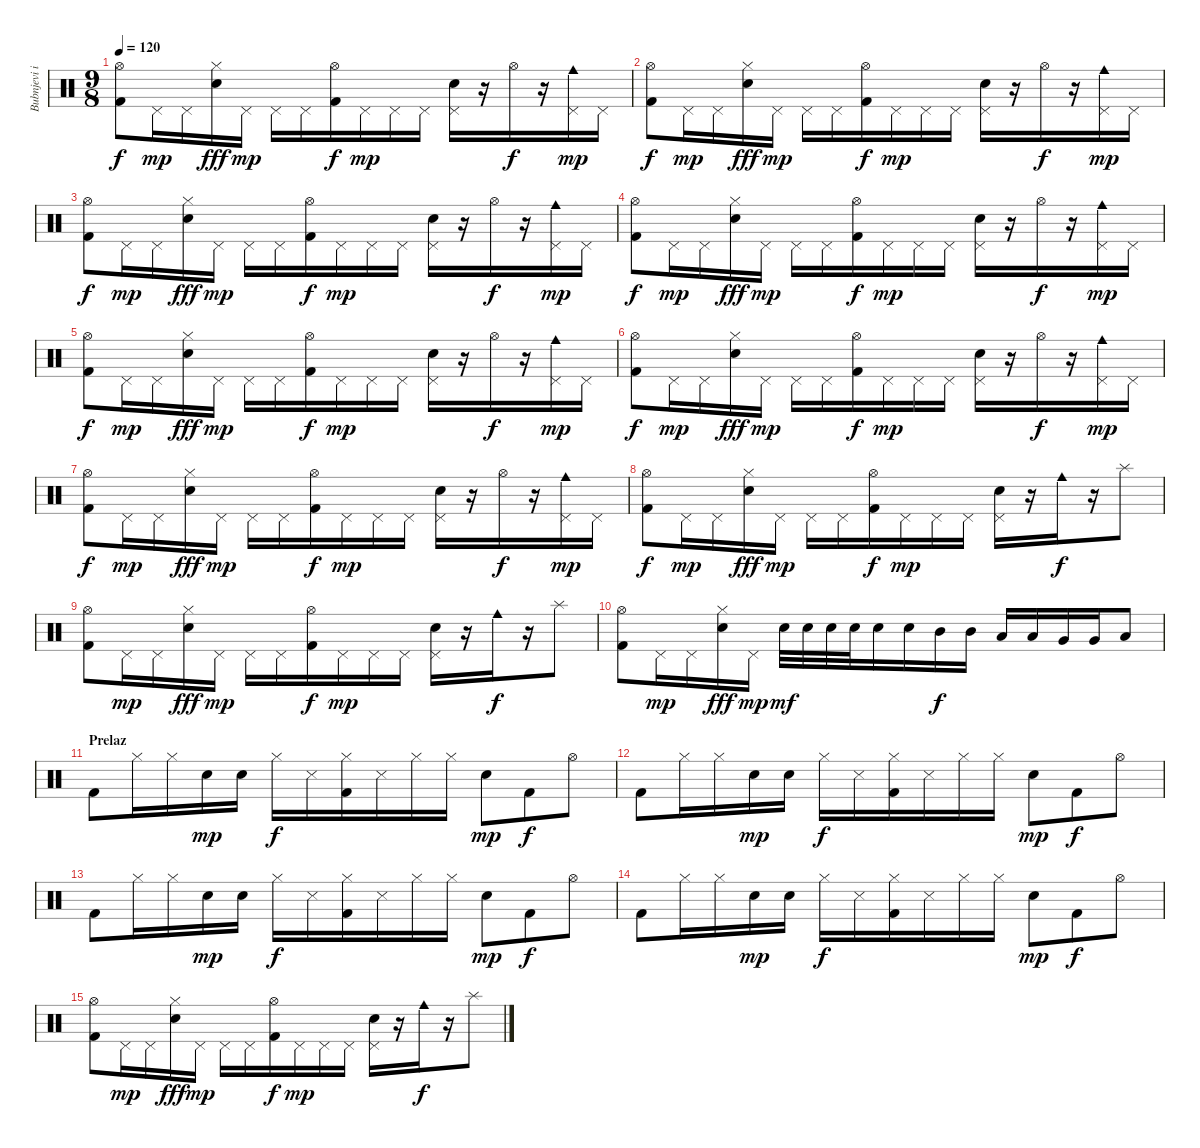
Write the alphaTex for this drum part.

\track ("Bubnjevi i perkusije" "Bubnjevi i") {instrument percussion}
\staff {score}
\articulation defaults
\ts (9 8)
\tempo 120
\clef neutral
\ks c
("Hi-Hat (open)" "Kick (hit) 2").8{dy f} "Pedal Hi-Hat (hit)".16{dy mp} "Pedal Hi-Hat (hit)".16 ("Hi-Hat (closed)" "Electric Snare (hit)").16{dy fff} "Pedal Hi-Hat (hit)".16{dy mp} "Pedal Hi-Hat (hit)".16 "Pedal Hi-Hat (hit)".16 ("Hi-Hat (open)" "Kick (hit) 2").16{dy f} "Pedal Hi-Hat (hit)".16{dy mp} "Pedal Hi-Hat (hit)".16 "Pedal Hi-Hat (hit)".16 ("Pedal Hi-Hat (hit)" "Electric Snare (hit)").16 r.16 "Hi-Hat (open)".16{dy f} r.16 ("Pedal Hi-Hat (hit)" "Cowbell medium (hit)").16{dy mp} "Pedal Hi-Hat (hit)".16 |
("Hi-Hat (open)" "Kick (hit) 2").8{dy f} "Pedal Hi-Hat (hit)".16{dy mp} "Pedal Hi-Hat (hit)".16 ("Hi-Hat (closed)" "Electric Snare (hit)").16{dy fff} "Pedal Hi-Hat (hit)".16{dy mp} "Pedal Hi-Hat (hit)".16 "Pedal Hi-Hat (hit)".16 ("Hi-Hat (open)" "Kick (hit) 2").16{dy f} "Pedal Hi-Hat (hit)".16{dy mp} "Pedal Hi-Hat (hit)".16 "Pedal Hi-Hat (hit)".16 ("Pedal Hi-Hat (hit)" "Electric Snare (hit)").16 r.16 "Hi-Hat (open)".16{dy f} r.16 ("Pedal Hi-Hat (hit)" "Cowbell medium (hit)").16{dy mp} "Pedal Hi-Hat (hit)".16 |
("Hi-Hat (open)" "Kick (hit) 2").8{dy f} "Pedal Hi-Hat (hit)".16{dy mp} "Pedal Hi-Hat (hit)".16 ("Hi-Hat (closed)" "Electric Snare (hit)").16{dy fff} "Pedal Hi-Hat (hit)".16{dy mp} "Pedal Hi-Hat (hit)".16 "Pedal Hi-Hat (hit)".16 ("Hi-Hat (open)" "Kick (hit) 2").16{dy f} "Pedal Hi-Hat (hit)".16{dy mp} "Pedal Hi-Hat (hit)".16 "Pedal Hi-Hat (hit)".16 ("Pedal Hi-Hat (hit)" "Electric Snare (hit)").16 r.16 "Hi-Hat (open)".16{dy f} r.16 ("Pedal Hi-Hat (hit)" "Cowbell medium (hit)").16{dy mp} "Pedal Hi-Hat (hit)".16 |
("Hi-Hat (open)" "Kick (hit) 2").8{dy f} "Pedal Hi-Hat (hit)".16{dy mp} "Pedal Hi-Hat (hit)".16 ("Hi-Hat (closed)" "Electric Snare (hit)").16{dy fff} "Pedal Hi-Hat (hit)".16{dy mp} "Pedal Hi-Hat (hit)".16 "Pedal Hi-Hat (hit)".16 ("Hi-Hat (open)" "Kick (hit) 2").16{dy f} "Pedal Hi-Hat (hit)".16{dy mp} "Pedal Hi-Hat (hit)".16 "Pedal Hi-Hat (hit)".16 ("Pedal Hi-Hat (hit)" "Electric Snare (hit)").16 r.16 "Hi-Hat (open)".16{dy f} r.16 ("Pedal Hi-Hat (hit)" "Cowbell medium (hit)").16{dy mp} "Pedal Hi-Hat (hit)".16 |
("Hi-Hat (open)" "Kick (hit) 2").8{dy f} "Pedal Hi-Hat (hit)".16{dy mp} "Pedal Hi-Hat (hit)".16 ("Hi-Hat (closed)" "Electric Snare (hit)").16{dy fff} "Pedal Hi-Hat (hit)".16{dy mp} "Pedal Hi-Hat (hit)".16 "Pedal Hi-Hat (hit)".16 ("Hi-Hat (open)" "Kick (hit) 2").16{dy f} "Pedal Hi-Hat (hit)".16{dy mp} "Pedal Hi-Hat (hit)".16 "Pedal Hi-Hat (hit)".16 ("Pedal Hi-Hat (hit)" "Electric Snare (hit)").16 r.16 "Hi-Hat (open)".16{dy f} r.16 ("Pedal Hi-Hat (hit)" "Cowbell medium (hit)").16{dy mp} "Pedal Hi-Hat (hit)".16 |
("Hi-Hat (open)" "Kick (hit) 2").8{dy f} "Pedal Hi-Hat (hit)".16{dy mp} "Pedal Hi-Hat (hit)".16 ("Hi-Hat (closed)" "Electric Snare (hit)").16{dy fff} "Pedal Hi-Hat (hit)".16{dy mp} "Pedal Hi-Hat (hit)".16 "Pedal Hi-Hat (hit)".16 ("Hi-Hat (open)" "Kick (hit) 2").16{dy f} "Pedal Hi-Hat (hit)".16{dy mp} "Pedal Hi-Hat (hit)".16 "Pedal Hi-Hat (hit)".16 ("Pedal Hi-Hat (hit)" "Electric Snare (hit)").16 r.16 "Hi-Hat (open)".16{dy f} r.16 ("Pedal Hi-Hat (hit)" "Cowbell medium (hit)").16{dy mp} "Pedal Hi-Hat (hit)".16 |
("Hi-Hat (open)" "Kick (hit) 2").8{dy f} "Pedal Hi-Hat (hit)".16{dy mp} "Pedal Hi-Hat (hit)".16 ("Hi-Hat (closed)" "Electric Snare (hit)").16{dy fff} "Pedal Hi-Hat (hit)".16{dy mp} "Pedal Hi-Hat (hit)".16 "Pedal Hi-Hat (hit)".16 ("Hi-Hat (open)" "Kick (hit) 2").16{dy f} "Pedal Hi-Hat (hit)".16{dy mp} "Pedal Hi-Hat (hit)".16 "Pedal Hi-Hat (hit)".16 ("Pedal Hi-Hat (hit)" "Electric Snare (hit)").16 r.16 "Hi-Hat (open)".16{dy f} r.16 ("Pedal Hi-Hat (hit)" "Cowbell medium (hit)").16{dy mp} "Pedal Hi-Hat (hit)".16 |
("Hi-Hat (open)" "Kick (hit) 2").8{dy f} "Pedal Hi-Hat (hit)".16{dy mp} "Pedal Hi-Hat (hit)".16 ("Hi-Hat (closed)" "Electric Snare (hit)").16{dy fff} "Pedal Hi-Hat (hit)".16{dy mp} "Pedal Hi-Hat (hit)".16 "Pedal Hi-Hat (hit)".16 ("Hi-Hat (open)" "Kick (hit) 2").16{dy f} "Pedal Hi-Hat (hit)".16{dy mp} "Pedal Hi-Hat (hit)".16 "Pedal Hi-Hat (hit)".16 ("Pedal Hi-Hat (hit)" "Electric Snare (hit)").16 r.16 "Cowbell medium (hit)".16{dy f} r.16 "Splash (hit)".8 |
("Hi-Hat (open)" "Kick (hit) 2").8 "Pedal Hi-Hat (hit)".16{dy mp} "Pedal Hi-Hat (hit)".16 ("Hi-Hat (closed)" "Electric Snare (hit)").16{dy fff} "Pedal Hi-Hat (hit)".16{dy mp} "Pedal Hi-Hat (hit)".16 "Pedal Hi-Hat (hit)".16 ("Hi-Hat (open)" "Kick (hit) 2").16{dy f} "Pedal Hi-Hat (hit)".16{dy mp} "Pedal Hi-Hat (hit)".16 "Pedal Hi-Hat (hit)".16 ("Pedal Hi-Hat (hit)" "Electric Snare (hit)").16 r.16 "Cowbell medium (hit)".16{dy f} r.16 "Splash (hit)".8 |
("Hi-Hat (open)" "Kick (hit) 2").8 "Pedal Hi-Hat (hit)".16{dy mp} "Pedal Hi-Hat (hit)".16 ("Hi-Hat (closed)" "Electric Snare (hit)").16{dy fff} "Pedal Hi-Hat (hit)".16{dy mp} "Electric Snare (hit)".32{dy mf} "Electric Snare (hit)".32 "Electric Snare (hit)".32 "Electric Snare (hit)".32 "Electric Snare (hit)".16 "Electric Snare (hit)".16 "Mid Tom (hit)".16{dy f} "Mid Tom (hit)".16 "Low Tom (hit)".16 "Low Tom (hit)".16 "Very Low Tom (hit)".16 "Very Low Tom (hit)".16 "Low Floor Tom (hit)".8 |
\section ("" "Prelaz")
"Kick (hit) 2".8 "Hi-Hat (closed)".16 "Hi-Hat (closed)".16 "Electric Snare (hit)".16{dy mp} "Electric Snare (hit)".16 "Hi-Hat (closed)".16{dy f} "Snare (side stick) 3".16 ("Hi-Hat (closed)" "Kick (hit) 2").16 "Snare (side stick) 3".16 "Hi-Hat (closed)".16 "Hi-Hat (closed)".16 "Electric Snare (hit)".8{dy mp} "Kick (hit) 2".8{dy f} "Hi-Hat (open)".8 |
"Kick (hit) 2".8 "Hi-Hat (closed)".16 "Hi-Hat (closed)".16 "Electric Snare (hit)".16{dy mp} "Electric Snare (hit)".16 "Hi-Hat (closed)".16{dy f} "Snare (side stick) 3".16 ("Hi-Hat (closed)" "Kick (hit) 2").16 "Snare (side stick) 3".16 "Hi-Hat (closed)".16 "Hi-Hat (closed)".16 "Electric Snare (hit)".8{dy mp} "Kick (hit) 2".8{dy f} "Hi-Hat (open)".8 |
"Kick (hit) 2".8 "Hi-Hat (closed)".16 "Hi-Hat (closed)".16 "Electric Snare (hit)".16{dy mp} "Electric Snare (hit)".16 "Hi-Hat (closed)".16{dy f} "Snare (side stick) 3".16 ("Hi-Hat (closed)" "Kick (hit) 2").16 "Snare (side stick) 3".16 "Hi-Hat (closed)".16 "Hi-Hat (closed)".16 "Electric Snare (hit)".8{dy mp} "Kick (hit) 2".8{dy f} "Hi-Hat (open)".8 |
"Kick (hit) 2".8 "Hi-Hat (closed)".16 "Hi-Hat (closed)".16 "Electric Snare (hit)".16{dy mp} "Electric Snare (hit)".16 "Hi-Hat (closed)".16{dy f} "Snare (side stick) 3".16 ("Hi-Hat (closed)" "Kick (hit) 2").16 "Snare (side stick) 3".16 "Hi-Hat (closed)".16 "Hi-Hat (closed)".16 "Electric Snare (hit)".8{dy mp} "Kick (hit) 2".8{dy f} "Hi-Hat (open)".8 |
("Hi-Hat (open)" "Kick (hit) 2").8 "Pedal Hi-Hat (hit)".16{dy mp} "Pedal Hi-Hat (hit)".16 ("Hi-Hat (closed)" "Electric Snare (hit)").16{dy fff} "Pedal Hi-Hat (hit)".16{dy mp} "Pedal Hi-Hat (hit)".16 "Pedal Hi-Hat (hit)".16 ("Hi-Hat (open)" "Kick (hit) 2").16{dy f} "Pedal Hi-Hat (hit)".16{dy mp} "Pedal Hi-Hat (hit)".16 "Pedal Hi-Hat (hit)".16 ("Pedal Hi-Hat (hit)" "Electric Snare (hit)").16 r.16 "Cowbell medium (hit)".16{dy f} r.16 "Splash (hit)".8
